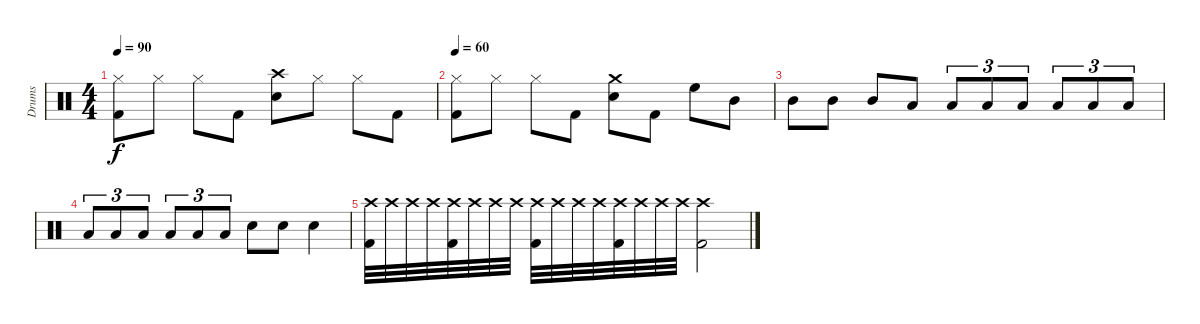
\track ("Drums" "Drums") {instrument percussion}
\staff {score}
\articulation defaults
\ts (4 4)
\tempo 90
\clef neutral
\ks c
("Hi-Hat (closed)" "Kick (hit) 2").8{dy f} "Hi-Hat (closed)".8 "Hi-Hat (closed)".8 "Kick (hit) 2".8 ("Crash high (hit)" "Snare (hit) 2").8 "Hi-Hat (closed)".8 "Hi-Hat (closed)".8 "Kick (hit) 2".8 |
\tempo 60
("Hi-Hat (closed)" "Kick (hit) 2").8 "Hi-Hat (closed)".8 "Hi-Hat (closed)".8 "Kick (hit) 2".8 ("Crash medium (hit)" "Snare (hit) 2").8 "Kick (hit) 2".8 "High Floor Tom (hit)".8 "Mid Tom (hit)".8 |
"Mid Tom (hit)".8 "Mid Tom (hit)".8 "Mid Tom (hit)".8 "Low Tom (hit)".8 "Low Tom (hit)".8{tu (3 2)} "Low Tom (hit)".8{tu (3 2)} "Low Tom (hit)".8{tu (3 2)} "Low Floor Tom (hit)".8{tu (3 2)} "Low Floor Tom (hit)".8{tu (3 2)} "Low Floor Tom (hit)".8{tu (3 2)} |
"Low Floor Tom (hit)".8{tu (3 2)} "Low Floor Tom (hit)".8{tu (3 2)} "Low Floor Tom (hit)".8{tu (3 2)} "Low Floor Tom (hit)".8{tu (3 2)} "Low Floor Tom (hit)".8{tu (3 2)} "Low Floor Tom (hit)".8{tu (3 2)} "Snare (hit) 2".8 "Snare (hit) 2".8 "Snare (hit) 2".4 |
("Crash high (hit)" "Kick (hit) 2").32 "Crash high (hit)".32 "Crash high (hit)".32 "Crash high (hit)".32 ("Crash high (hit)" "Kick (hit) 2").32 "Crash high (hit)".32 "Crash high (hit)".32 "Crash high (hit)".32 ("Crash high (hit)" "Kick (hit) 2").32 "Crash high (hit)".32 "Crash high (hit)".32 "Crash high (hit)".32 ("Crash high (hit)" "Kick (hit) 2").32 "Crash high (hit)".32 "Crash high (hit)".32 "Crash high (hit)".32 ("Kick (hit) 2" "Crash high (hit)").2
